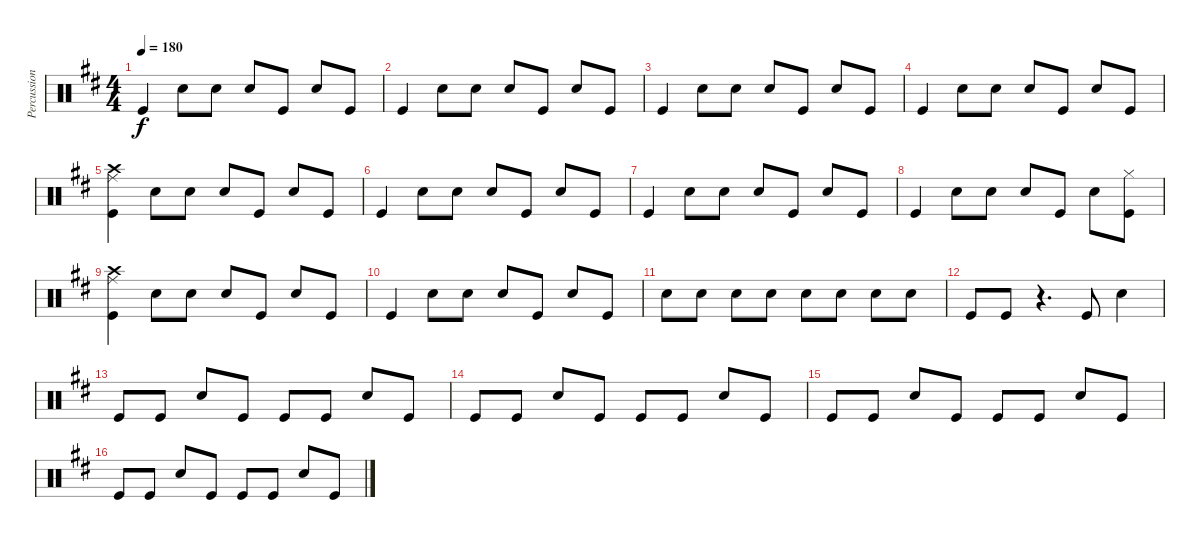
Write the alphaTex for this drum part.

\track ("Percussion" "Percussion") {instrument percussion}
\staff {score}
\articulation defaults
\ts (4 4)
\tempo 180
\clef neutral
\ks d "Kick (hit)".4{dy f} "Snare (hit) 2".8 "Snare (hit) 2".8 "Snare (hit) 2".8 "Kick (hit)".8 "Snare (hit) 2".8 "Kick (hit)".8
|
"Kick (hit)".4 "Snare (hit) 2".8 "Snare (hit) 2".8 "Snare (hit) 2".8 "Kick (hit)".8 "Snare (hit) 2".8 "Kick (hit)".8 |
"Kick (hit)".4 "Snare (hit) 2".8 "Snare (hit) 2".8 "Snare (hit) 2".8 "Kick (hit)".8 "Snare (hit) 2".8 "Kick (hit)".8 |
"Kick (hit)".4 "Snare (hit) 2".8 "Snare (hit) 2".8 "Snare (hit) 2".8 "Kick (hit)".8 "Snare (hit) 2".8 "Kick (hit)".8 |
("Kick (hit)" "Crash high (hit)" "Ride (middle)").4 "Snare (hit) 2".8 "Snare (hit) 2".8 "Snare (hit) 2".8 "Kick (hit)".8 "Snare (hit) 2".8 "Kick (hit)".8 |
"Kick (hit)".4 "Snare (hit) 2".8 "Snare (hit) 2".8 "Snare (hit) 2".8 "Kick (hit)".8 "Snare (hit) 2".8 "Kick (hit)".8 |
"Kick (hit)".4 "Snare (hit) 2".8 "Snare (hit) 2".8 "Snare (hit) 2".8 "Kick (hit)".8 "Snare (hit) 2".8 "Kick (hit)".8 |
"Kick (hit)".4 "Snare (hit) 2".8 "Snare (hit) 2".8 "Snare (hit) 2".8 "Kick (hit)".8 "Snare (hit) 2".8 ("Kick (hit)" "Hi-Hat (closed)").8 |
("Kick (hit)" "Crash high (hit)" "Ride (middle)").4 "Snare (hit) 2".8 "Snare (hit) 2".8 "Snare (hit) 2".8 "Kick (hit)".8 "Snare (hit) 2".8 "Kick (hit)".8 |
"Kick (hit)".4 "Snare (hit) 2".8 "Snare (hit) 2".8 "Snare (hit) 2".8 "Kick (hit)".8 "Snare (hit) 2".8 "Kick (hit)".8 |
"Snare (hit) 2".8 "Snare (hit) 2".8 "Snare (hit) 2".8 "Snare (hit) 2".8 "Snare (hit) 2".8 "Snare (hit) 2".8 "Snare (hit) 2".8 "Snare (hit) 2".8 |
"Kick (hit)".8 "Kick (hit)".8 r.4{d} "Kick (hit)".8 "Snare (hit) 2".4 |
"Kick (hit)".8 "Kick (hit)".8 "Snare (hit) 2".8 "Kick (hit)".8 "Kick (hit)".8 "Kick (hit)".8 "Snare (hit) 2".8 "Kick (hit)".8 |
"Kick (hit)".8 "Kick (hit)".8 "Snare (hit) 2".8 "Kick (hit)".8 "Kick (hit)".8 "Kick (hit)".8 "Snare (hit) 2".8 "Kick (hit)".8 |
"Kick (hit)".8 "Kick (hit)".8 "Snare (hit) 2".8 "Kick (hit)".8 "Kick (hit)".8 "Kick (hit)".8 "Snare (hit) 2".8 "Kick (hit)".8 |
"Kick (hit)".8 "Kick (hit)".8 "Snare (hit) 2".8 "Kick (hit)".8 "Kick (hit)".8 "Kick (hit)".8 "Snare (hit) 2".8 "Kick (hit)".8
